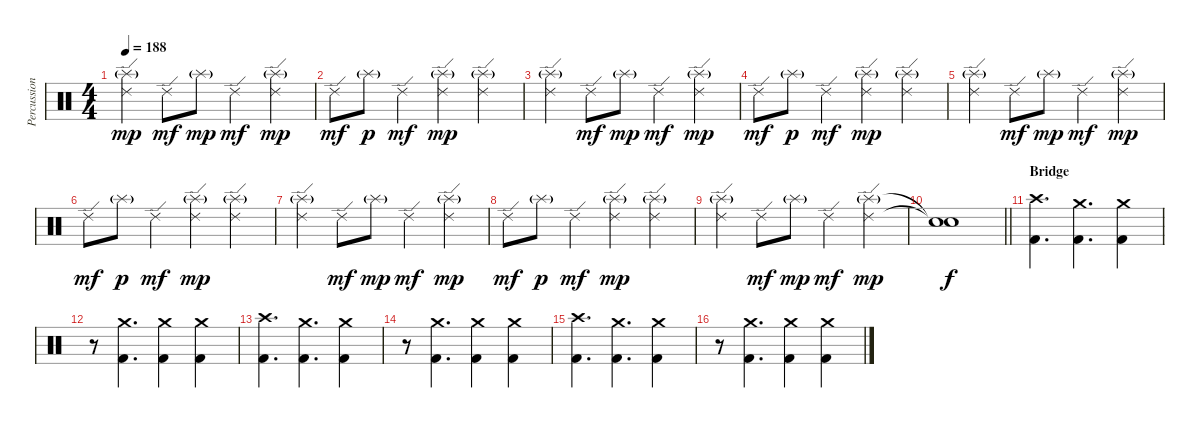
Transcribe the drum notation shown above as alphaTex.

\track ("Percussion" "Percussion") {instrument percussion}
\staff {score}
\articulation defaults
\ts (4 4)
\tempo 188
\clef neutral
\ks c
("Ride (edge) 2" "Splash (hit)"{g}).4{dy mp} "Ride (edge) 2".8{dy mf} "Splash (hit)"{g}.8{dy mp} "Ride (edge) 2".4{dy mf} ("Ride (edge) 2" "Splash (hit)"{g}).4{dy mp} |
"Ride (edge) 2".8{dy mf} "Splash (hit)"{g}.8{dy p} "Ride (edge) 2".4{dy mf} ("Ride (edge) 2" "Splash (hit)"{g}).4{dy mp} ("Ride (edge) 2" "Splash (hit)"{g}).4 |
("Ride (edge) 2" "Splash (hit)"{g}).4 "Ride (edge) 2".8{dy mf} "Splash (hit)"{g}.8{dy mp} "Ride (edge) 2".4{dy mf} ("Ride (edge) 2" "Splash (hit)"{g}).4{dy mp} |
"Ride (edge) 2".8{dy mf} "Splash (hit)"{g}.8{dy p} "Ride (edge) 2".4{dy mf} ("Ride (edge) 2" "Splash (hit)"{g}).4{dy mp} ("Ride (edge) 2" "Splash (hit)"{g}).4 |
("Ride (edge) 2" "Splash (hit)"{g}).4 "Ride (edge) 2".8{dy mf} "Splash (hit)"{g}.8{dy mp} "Ride (edge) 2".4{dy mf} ("Ride (edge) 2" "Splash (hit)"{g}).4{dy mp} |
"Ride (edge) 2".8{dy mf} "Splash (hit)"{g}.8{dy p} "Ride (edge) 2".4{dy mf} ("Ride (edge) 2" "Splash (hit)"{g}).4{dy mp} ("Ride (edge) 2" "Splash (hit)"{g}).4 |
("Ride (edge) 2" "Splash (hit)"{g}).4 "Ride (edge) 2".8{dy mf} "Splash (hit)"{g}.8{dy mp} "Ride (edge) 2".4{dy mf} ("Ride (edge) 2" "Splash (hit)"{g}).4{dy mp} |
"Ride (edge) 2".8{dy mf} "Splash (hit)"{g}.8{dy p} "Ride (edge) 2".4{dy mf} ("Ride (edge) 2" "Splash (hit)"{g}).4{dy mp} ("Ride (edge) 2" "Splash (hit)"{g}).4 |
("Ride (edge) 2" "Splash (hit)"{g}).4 "Ride (edge) 2".8{dy mf} "Splash (hit)"{g}.8{dy mp} "Ride (edge) 2".4{dy mf} ("Ride (edge) 2" "Splash (hit)"{g}).4{dy mp} |
\barLineRight lightlight
("Snare (hit)"{t} "Snare (hit)"{t}).1{dy f} |
\section ("" "Bridge")
("Crash high (hit)" "Kick (hit) 2").4{d} ("Crash medium (hit)" "Kick (hit) 2").4{d} ("Crash medium (hit)" "Kick (hit) 2").4 |
r.8 ("Crash medium (hit)" "Kick (hit) 2").4{d} ("Crash medium (hit)" "Kick (hit) 2").4 ("Crash medium (hit)" "Kick (hit) 2").4 |
("Crash high (hit)" "Kick (hit) 2").4{d} ("Crash medium (hit)" "Kick (hit) 2").4{d} ("Crash medium (hit)" "Kick (hit) 2").4 |
r.8 ("Crash medium (hit)" "Kick (hit) 2").4{d} ("Crash medium (hit)" "Kick (hit) 2").4 ("Crash medium (hit)" "Kick (hit) 2").4 |
("Crash high (hit)" "Kick (hit) 2").4{d} ("Crash medium (hit)" "Kick (hit) 2").4{d} ("Crash medium (hit)" "Kick (hit) 2").4 |
r.8 ("Crash medium (hit)" "Kick (hit) 2").4{d} ("Crash medium (hit)" "Kick (hit) 2").4 ("Crash medium (hit)" "Kick (hit) 2").4
